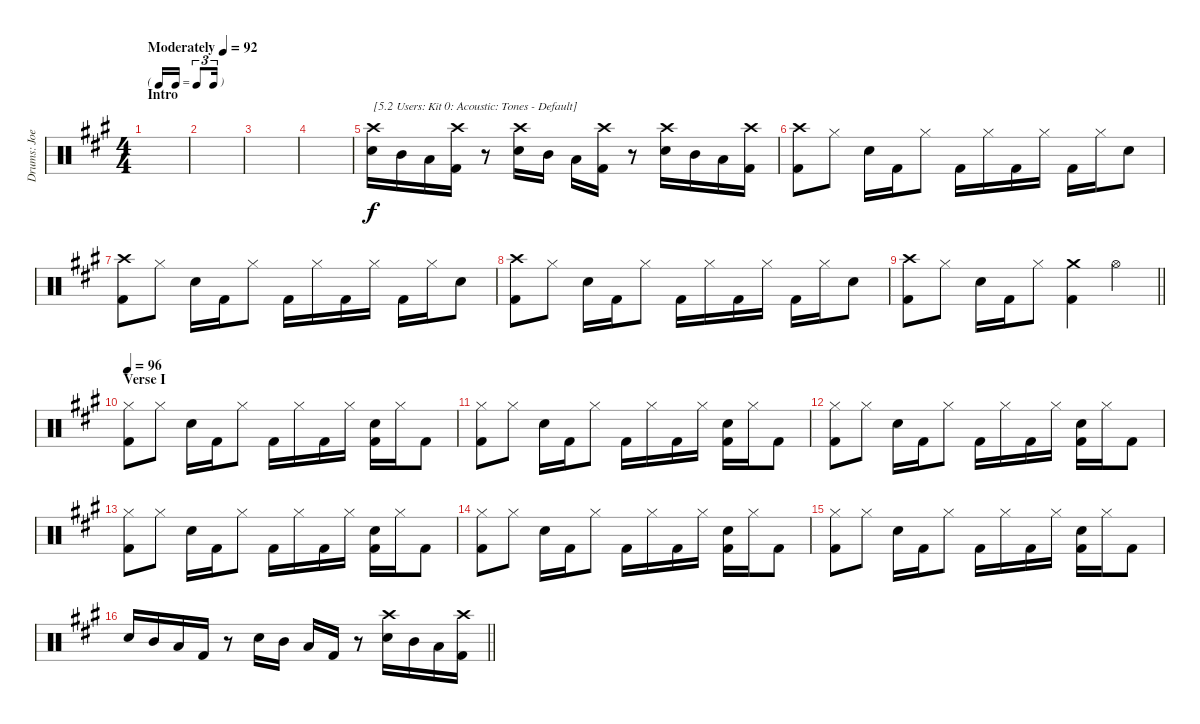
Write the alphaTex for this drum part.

\track ("Drums: Joey" "Drums: Joe") {instrument percussion}
\staff {score}
\articulation defaults
\ts (4 4)
\tf triplet16th
\section ("" "Intro")
\tempo (92 "Moderately")
\clef neutral
\ks a
|
|
|
|
("Crash high (hit)" "Electric Snare (hit)").16{txt "[5.2 Users: Kit 0: Acoustic: Tones - Default]"} "Mid Tom (hit)".16 "Low Tom (hit)".16 ("Crash high (hit)" "Kick (hit) 2").16 r.8 ("Crash high (hit)" "Electric Snare (hit)").16 "Mid Tom (hit)".16 "Low Tom (hit)".16 ("Crash high (hit)" "Kick (hit) 2").16 r.8 ("Crash high (hit)" "Electric Snare (hit)").16 "Mid Tom (hit)".16 "Low Tom (hit)".16 ("Crash high (hit)" "Kick (hit) 2").16 |
("Crash high (hit)" "Kick (hit) 2").8 "Hi-Hat (closed)".8 "Electric Snare (hit)".16 "Kick (hit) 2".16 "Hi-Hat (closed)".8 "Kick (hit) 2".16 "Hi-Hat (closed)".16 "Kick (hit) 2".16 "Hi-Hat (closed)".16 "Kick (hit) 2".16 "Hi-Hat (closed)".16 "Electric Snare (hit)".8 |
("Crash high (hit)" "Kick (hit) 2").8 "Hi-Hat (closed)".8 "Electric Snare (hit)".16 "Kick (hit) 2".16 "Hi-Hat (closed)".8 "Kick (hit) 2".16 "Hi-Hat (closed)".16 "Kick (hit) 2".16 "Hi-Hat (closed)".16 "Kick (hit) 2".16 "Hi-Hat (closed)".16 "Electric Snare (hit)".8 |
("Crash high (hit)" "Kick (hit) 2").8 "Hi-Hat (closed)".8 "Electric Snare (hit)".16 "Kick (hit) 2".16 "Hi-Hat (closed)".8 "Kick (hit) 2".16 "Hi-Hat (closed)".16 "Kick (hit) 2".16 "Hi-Hat (closed)".16 "Kick (hit) 2".16 "Hi-Hat (closed)".16 "Electric Snare (hit)".8 |
\barLineRight lightlight
("Crash high (hit)" "Kick (hit) 2").8 "Hi-Hat (closed)".8 "Electric Snare (hit)".16 "Kick (hit) 2".16 "Hi-Hat (closed)".8 ("Crash medium (hit)" "Kick (hit) 2").4 "Hi-Hat (open)".4 |
\section ("" "Verse I")
\tempo 96
("Hi-Hat (closed)" "Kick (hit) 2").8 "Hi-Hat (closed)".8 "Electric Snare (hit)".16 "Kick (hit) 2".16 "Hi-Hat (closed)".8 "Kick (hit) 2".16 "Hi-Hat (closed)".16 "Kick (hit) 2".16 "Hi-Hat (closed)".16 ("Electric Snare (hit)" "Kick (hit) 2").16 "Hi-Hat (closed)".16 "Kick (hit) 2".8 |
("Hi-Hat (closed)" "Kick (hit) 2").8 "Hi-Hat (closed)".8 "Electric Snare (hit)".16 "Kick (hit) 2".16 "Hi-Hat (closed)".8 "Kick (hit) 2".16 "Hi-Hat (closed)".16 "Kick (hit) 2".16 "Hi-Hat (closed)".16 ("Electric Snare (hit)" "Kick (hit) 2").16 "Hi-Hat (closed)".16 "Kick (hit) 2".8 |
("Hi-Hat (closed)" "Kick (hit) 2").8 "Hi-Hat (closed)".8 "Electric Snare (hit)".16 "Kick (hit) 2".16 "Hi-Hat (closed)".8 "Kick (hit) 2".16 "Hi-Hat (closed)".16 "Kick (hit) 2".16 "Hi-Hat (closed)".16 ("Electric Snare (hit)" "Kick (hit) 2").16 "Hi-Hat (closed)".16 "Kick (hit) 2".8 |
("Hi-Hat (closed)" "Kick (hit) 2").8 "Hi-Hat (closed)".8 "Electric Snare (hit)".16 "Kick (hit) 2".16 "Hi-Hat (closed)".8 "Kick (hit) 2".16 "Hi-Hat (closed)".16 "Kick (hit) 2".16 "Hi-Hat (closed)".16 ("Electric Snare (hit)" "Kick (hit) 2").16 "Hi-Hat (closed)".16 "Kick (hit) 2".8 |
("Hi-Hat (closed)" "Kick (hit) 2").8 "Hi-Hat (closed)".8 "Electric Snare (hit)".16 "Kick (hit) 2".16 "Hi-Hat (closed)".8 "Kick (hit) 2".16 "Hi-Hat (closed)".16 "Kick (hit) 2".16 "Hi-Hat (closed)".16 ("Electric Snare (hit)" "Kick (hit) 2").16 "Hi-Hat (closed)".16 "Kick (hit) 2".8 |
("Hi-Hat (closed)" "Kick (hit) 2").8 "Hi-Hat (closed)".8 "Electric Snare (hit)".16 "Kick (hit) 2".16 "Hi-Hat (closed)".8 "Kick (hit) 2".16 "Hi-Hat (closed)".16 "Kick (hit) 2".16 "Hi-Hat (closed)".16 ("Electric Snare (hit)" "Kick (hit) 2").16 "Hi-Hat (closed)".16 "Kick (hit) 2".8 |
\barLineRight lightlight "Electric Snare (hit)".16 "Mid Tom (hit)".16 "Low Tom (hit)".16 "Kick (hit) 2".16
r.8 "Electric Snare (hit)".16 "Mid Tom (hit)".16 "Low Tom (hit)".16 "Kick (hit) 2".16 r.8 ("Crash high (hit)" "Electric Snare (hit)").16 "Mid Tom (hit)".16 "Low Tom (hit)".16 ("Crash high (hit)" "Kick (hit) 2").16
